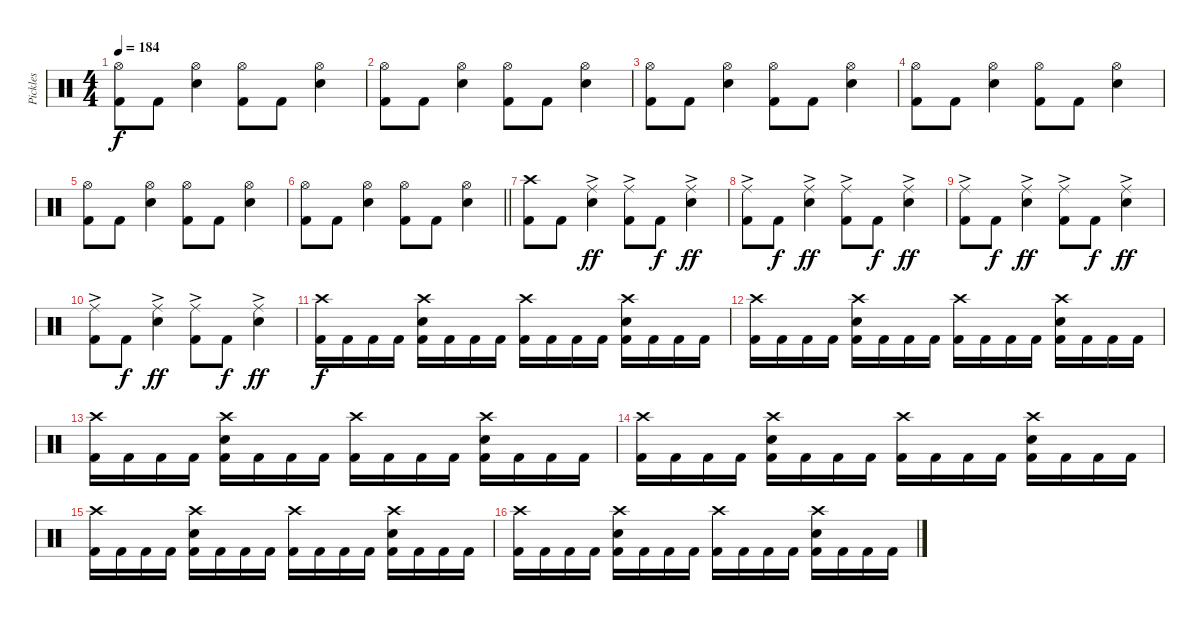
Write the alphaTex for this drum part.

\track ("Pickles" "Pickles") {instrument percussion}
\staff {score}
\articulation defaults
\ts (4 4)
\tempo 184
\clef neutral
\ks aminor
("Hi-Hat (open)" "Kick (hit) 2").8{dy f} "Kick (hit) 2".8 ("Hi-Hat (open)" "Snare (hit) 2").4 ("Hi-Hat (open)" "Kick (hit) 2").8 "Kick (hit) 2".8 ("Hi-Hat (open)" "Snare (hit) 2").4 |
("Hi-Hat (open)" "Kick (hit) 2").8 "Kick (hit) 2".8 ("Hi-Hat (open)" "Snare (hit) 2").4 ("Hi-Hat (open)" "Kick (hit) 2").8 "Kick (hit) 2".8 ("Hi-Hat (open)" "Snare (hit) 2").4 |
("Hi-Hat (open)" "Kick (hit) 2").8 "Kick (hit) 2".8 ("Hi-Hat (open)" "Snare (hit) 2").4 ("Hi-Hat (open)" "Kick (hit) 2").8 "Kick (hit) 2".8 ("Hi-Hat (open)" "Snare (hit) 2").4 |
("Hi-Hat (open)" "Kick (hit) 2").8 "Kick (hit) 2".8 ("Hi-Hat (open)" "Snare (hit) 2").4 ("Hi-Hat (open)" "Kick (hit) 2").8 "Kick (hit) 2".8 ("Hi-Hat (open)" "Snare (hit) 2").4 |
("Hi-Hat (open)" "Kick (hit) 2").8 "Kick (hit) 2".8 ("Hi-Hat (open)" "Snare (hit) 2").4 ("Hi-Hat (open)" "Kick (hit) 2").8 "Kick (hit) 2".8 ("Hi-Hat (open)" "Snare (hit) 2").4 |
\barLineRight lightlight
("Hi-Hat (open)" "Kick (hit) 2").8 "Kick (hit) 2".8 ("Hi-Hat (open)" "Snare (hit) 2").4 ("Hi-Hat (open)" "Kick (hit) 2").8 "Kick (hit) 2".8 ("Hi-Hat (open)" "Snare (hit) 2").4 |
("Crash high (hit)" "Kick (hit) 2").8 "Kick (hit) 2".8 ("Ride (middle)"{ac} "Snare (hit) 2").4{dy ff} ("Ride (middle)"{ac} "Kick (hit) 2").8 "Kick (hit) 2".8{dy f} ("Ride (middle)"{ac} "Snare (hit) 2").4{dy ff} |
("Ride (middle)"{ac} "Kick (hit) 2").8 "Kick (hit) 2".8{dy f} ("Ride (middle)"{ac} "Snare (hit) 2").4{dy ff} ("Ride (middle)"{ac} "Kick (hit) 2").8 "Kick (hit) 2".8{dy f} ("Ride (middle)"{ac} "Snare (hit) 2").4{dy ff} |
("Ride (middle)"{ac} "Kick (hit) 2").8 "Kick (hit) 2".8{dy f} ("Ride (middle)"{ac} "Snare (hit) 2").4{dy ff} ("Ride (middle)"{ac} "Kick (hit) 2").8 "Kick (hit) 2".8{dy f} ("Ride (middle)"{ac} "Snare (hit) 2").4{dy ff} |
("Ride (middle)"{ac} "Kick (hit) 2").8 "Kick (hit) 2".8{dy f} ("Ride (middle)"{ac} "Snare (hit) 2").4{dy ff} ("Ride (middle)"{ac} "Kick (hit) 2").8 "Kick (hit) 2".8{dy f} ("Ride (middle)"{ac} "Snare (hit) 2").4{dy ff} |
("Crash high (hit)" "Kick (hit) 2").16{dy f} "Kick (hit) 2".16 "Kick (hit) 2".16 "Kick (hit) 2".16 ("Crash high (hit)" "Snare (hit) 2" "Kick (hit) 2").16 "Kick (hit) 2".16 "Kick (hit) 2".16 "Kick (hit) 2".16 ("Crash high (hit)" "Kick (hit) 2").16 "Kick (hit) 2".16 "Kick (hit) 2".16 "Kick (hit) 2".16 ("Crash high (hit)" "Snare (hit) 2" "Kick (hit) 2").16 "Kick (hit) 2".16 "Kick (hit) 2".16 "Kick (hit) 2".16 |
("Crash high (hit)" "Kick (hit) 2").16 "Kick (hit) 2".16 "Kick (hit) 2".16 "Kick (hit) 2".16 ("Crash high (hit)" "Snare (hit) 2" "Kick (hit) 2").16 "Kick (hit) 2".16 "Kick (hit) 2".16 "Kick (hit) 2".16 ("Crash high (hit)" "Kick (hit) 2").16 "Kick (hit) 2".16 "Kick (hit) 2".16 "Kick (hit) 2".16 ("Crash high (hit)" "Snare (hit) 2" "Kick (hit) 2").16 "Kick (hit) 2".16 "Kick (hit) 2".16 "Kick (hit) 2".16 |
("Crash high (hit)" "Kick (hit) 2").16 "Kick (hit) 2".16 "Kick (hit) 2".16 "Kick (hit) 2".16 ("Crash high (hit)" "Snare (hit) 2" "Kick (hit) 2").16 "Kick (hit) 2".16 "Kick (hit) 2".16 "Kick (hit) 2".16 ("Crash high (hit)" "Kick (hit) 2").16 "Kick (hit) 2".16 "Kick (hit) 2".16 "Kick (hit) 2".16 ("Crash high (hit)" "Snare (hit) 2" "Kick (hit) 2").16 "Kick (hit) 2".16 "Kick (hit) 2".16 "Kick (hit) 2".16 |
("Crash high (hit)" "Kick (hit) 2").16 "Kick (hit) 2".16 "Kick (hit) 2".16 "Kick (hit) 2".16 ("Crash high (hit)" "Snare (hit) 2" "Kick (hit) 2").16 "Kick (hit) 2".16 "Kick (hit) 2".16 "Kick (hit) 2".16 ("Crash high (hit)" "Kick (hit) 2").16 "Kick (hit) 2".16 "Kick (hit) 2".16 "Kick (hit) 2".16 ("Crash high (hit)" "Snare (hit) 2" "Kick (hit) 2").16 "Kick (hit) 2".16 "Kick (hit) 2".16 "Kick (hit) 2".16 |
("Crash high (hit)" "Kick (hit) 2").16 "Kick (hit) 2".16 "Kick (hit) 2".16 "Kick (hit) 2".16 ("Crash high (hit)" "Snare (hit) 2" "Kick (hit) 2").16 "Kick (hit) 2".16 "Kick (hit) 2".16 "Kick (hit) 2".16 ("Crash high (hit)" "Kick (hit) 2").16 "Kick (hit) 2".16 "Kick (hit) 2".16 "Kick (hit) 2".16 ("Crash high (hit)" "Snare (hit) 2" "Kick (hit) 2").16 "Kick (hit) 2".16 "Kick (hit) 2".16 "Kick (hit) 2".16 |
("Crash high (hit)" "Kick (hit) 2").16 "Kick (hit) 2".16 "Kick (hit) 2".16 "Kick (hit) 2".16 ("Crash high (hit)" "Snare (hit) 2" "Kick (hit) 2").16 "Kick (hit) 2".16 "Kick (hit) 2".16 "Kick (hit) 2".16 ("Crash high (hit)" "Kick (hit) 2").16 "Kick (hit) 2".16 "Kick (hit) 2".16 "Kick (hit) 2".16 ("Crash high (hit)" "Snare (hit) 2" "Kick (hit) 2").16 "Kick (hit) 2".16 "Kick (hit) 2".16 "Kick (hit) 2".16
